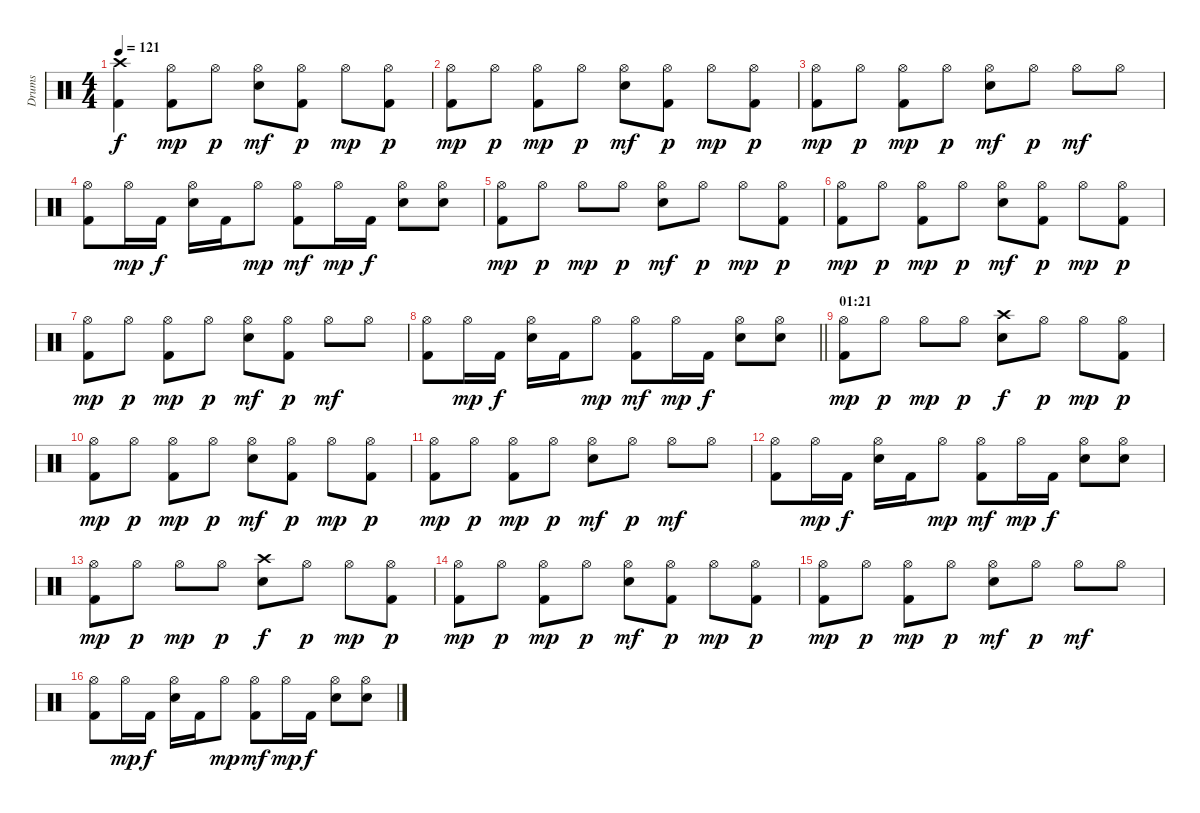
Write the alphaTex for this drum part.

\track ("Drums" "Drums") {instrument percussion}
\staff {score}
\articulation defaults
\ts (4 4)
\tempo 121
\clef neutral
\ks c
("Crash high (hit)" "Kick (hit) 2").4{dy f} ("Hi-Hat (open)" "Kick (hit) 2").8{dy mp} "Hi-Hat (open)".8{dy p} ("Hi-Hat (open)" "Electric Snare (hit)").8{dy mf} ("Hi-Hat (open)" "Kick (hit) 2").8{dy p} "Hi-Hat (open)".8{dy mp} ("Hi-Hat (open)" "Kick (hit) 2").8{dy p} |
("Hi-Hat (open)" "Kick (hit) 2").8{dy mp} "Hi-Hat (open)".8{dy p} ("Hi-Hat (open)" "Kick (hit) 2").8{dy mp} "Hi-Hat (open)".8{dy p} ("Hi-Hat (open)" "Electric Snare (hit)").8{dy mf} ("Hi-Hat (open)" "Kick (hit) 2").8{dy p} "Hi-Hat (open)".8{dy mp} ("Hi-Hat (open)" "Kick (hit) 2").8{dy p} |
("Hi-Hat (open)" "Kick (hit) 2").8{dy mp} "Hi-Hat (open)".8{dy p} ("Hi-Hat (open)" "Kick (hit) 2").8{dy mp} "Hi-Hat (open)".8{dy p} ("Hi-Hat (open)" "Electric Snare (hit)").8{dy mf} "Hi-Hat (open)".8{dy p} "Hi-Hat (open)".8{dy mf} "Hi-Hat (open)".8 |
("Hi-Hat (open)" "Kick (hit) 2").8 "Hi-Hat (open)".16{dy mp} "Kick (hit) 2".16{dy f} ("Hi-Hat (open)" "Electric Snare (hit)").16 "Kick (hit) 2".16 "Hi-Hat (open)".8{dy mp} ("Hi-Hat (open)" "Kick (hit) 2").8{dy mf} "Hi-Hat (open)".16{dy mp} "Kick (hit) 2".16{dy f} ("Hi-Hat (open)" "Electric Snare (hit)").8 ("Hi-Hat (open)" "Electric Snare (hit)").8 |
("Hi-Hat (open)" "Kick (hit) 2").8{dy mp} "Hi-Hat (open)".8{dy p} "Hi-Hat (open)".8{dy mp} "Hi-Hat (open)".8{dy p} ("Hi-Hat (open)" "Electric Snare (hit)").8{dy mf} "Hi-Hat (open)".8{dy p} "Hi-Hat (open)".8{dy mp} ("Hi-Hat (open)" "Kick (hit) 2").8{dy p} |
("Hi-Hat (open)" "Kick (hit) 2").8{dy mp} "Hi-Hat (open)".8{dy p} ("Hi-Hat (open)" "Kick (hit) 2").8{dy mp} "Hi-Hat (open)".8{dy p} ("Hi-Hat (open)" "Electric Snare (hit)").8{dy mf} ("Hi-Hat (open)" "Kick (hit) 2").8{dy p} "Hi-Hat (open)".8{dy mp} ("Hi-Hat (open)" "Kick (hit) 2").8{dy p} |
("Hi-Hat (open)" "Kick (hit) 2").8{dy mp} "Hi-Hat (open)".8{dy p} ("Hi-Hat (open)" "Kick (hit) 2").8{dy mp} "Hi-Hat (open)".8{dy p} ("Hi-Hat (open)" "Electric Snare (hit)").8{dy mf} ("Hi-Hat (open)" "Kick (hit) 2").8{dy p} "Hi-Hat (open)".8{dy mf} "Hi-Hat (open)".8 |
\barLineRight lightlight
("Hi-Hat (open)" "Kick (hit) 2").8 "Hi-Hat (open)".16{dy mp} "Kick (hit) 2".16{dy f} ("Hi-Hat (open)" "Electric Snare (hit)").16 "Kick (hit) 2".16 "Hi-Hat (open)".8{dy mp} ("Hi-Hat (open)" "Kick (hit) 2").8{dy mf} "Hi-Hat (open)".16{dy mp} "Kick (hit) 2".16{dy f} ("Hi-Hat (open)" "Electric Snare (hit)").8 ("Hi-Hat (open)" "Electric Snare (hit)").8 |
\section ("" "01:21")
("Hi-Hat (open)" "Kick (hit) 2").8{dy mp} "Hi-Hat (open)".8{dy p} "Hi-Hat (open)".8{dy mp} "Hi-Hat (open)".8{dy p} ("Crash high (hit)" "Electric Snare (hit)").8{dy f} "Hi-Hat (open)".8{dy p} "Hi-Hat (open)".8{dy mp} ("Hi-Hat (open)" "Kick (hit) 2").8{dy p} |
("Hi-Hat (open)" "Kick (hit) 2").8{dy mp} "Hi-Hat (open)".8{dy p} ("Hi-Hat (open)" "Kick (hit) 2").8{dy mp} "Hi-Hat (open)".8{dy p} ("Hi-Hat (open)" "Electric Snare (hit)").8{dy mf} ("Hi-Hat (open)" "Kick (hit) 2").8{dy p} "Hi-Hat (open)".8{dy mp} ("Hi-Hat (open)" "Kick (hit) 2").8{dy p} |
("Hi-Hat (open)" "Kick (hit) 2").8{dy mp} "Hi-Hat (open)".8{dy p} ("Hi-Hat (open)" "Kick (hit) 2").8{dy mp} "Hi-Hat (open)".8{dy p} ("Hi-Hat (open)" "Electric Snare (hit)").8{dy mf} "Hi-Hat (open)".8{dy p} "Hi-Hat (open)".8{dy mf} "Hi-Hat (open)".8 |
("Hi-Hat (open)" "Kick (hit) 2").8 "Hi-Hat (open)".16{dy mp} "Kick (hit) 2".16{dy f} ("Hi-Hat (open)" "Electric Snare (hit)").16 "Kick (hit) 2".16 "Hi-Hat (open)".8{dy mp} ("Hi-Hat (open)" "Kick (hit) 2").8{dy mf} "Hi-Hat (open)".16{dy mp} "Kick (hit) 2".16{dy f} ("Hi-Hat (open)" "Electric Snare (hit)").8 ("Hi-Hat (open)" "Electric Snare (hit)").8 |
("Hi-Hat (open)" "Kick (hit) 2").8{dy mp} "Hi-Hat (open)".8{dy p} "Hi-Hat (open)".8{dy mp} "Hi-Hat (open)".8{dy p} ("Crash high (hit)" "Electric Snare (hit)").8{dy f} "Hi-Hat (open)".8{dy p} "Hi-Hat (open)".8{dy mp} ("Hi-Hat (open)" "Kick (hit) 2").8{dy p} |
("Hi-Hat (open)" "Kick (hit) 2").8{dy mp} "Hi-Hat (open)".8{dy p} ("Hi-Hat (open)" "Kick (hit) 2").8{dy mp} "Hi-Hat (open)".8{dy p} ("Hi-Hat (open)" "Electric Snare (hit)").8{dy mf} ("Hi-Hat (open)" "Kick (hit) 2").8{dy p} "Hi-Hat (open)".8{dy mp} ("Hi-Hat (open)" "Kick (hit) 2").8{dy p} |
("Hi-Hat (open)" "Kick (hit) 2").8{dy mp} "Hi-Hat (open)".8{dy p} ("Hi-Hat (open)" "Kick (hit) 2").8{dy mp} "Hi-Hat (open)".8{dy p} ("Hi-Hat (open)" "Electric Snare (hit)").8{dy mf} "Hi-Hat (open)".8{dy p} "Hi-Hat (open)".8{dy mf} "Hi-Hat (open)".8 |
("Hi-Hat (open)" "Kick (hit) 2").8 "Hi-Hat (open)".16{dy mp} "Kick (hit) 2".16{dy f} ("Hi-Hat (open)" "Electric Snare (hit)").16 "Kick (hit) 2".16 "Hi-Hat (open)".8{dy mp} ("Hi-Hat (open)" "Kick (hit) 2").8{dy mf} "Hi-Hat (open)".16{dy mp} "Kick (hit) 2".16{dy f} ("Hi-Hat (open)" "Electric Snare (hit)").8 ("Hi-Hat (open)" "Electric Snare (hit)").8
